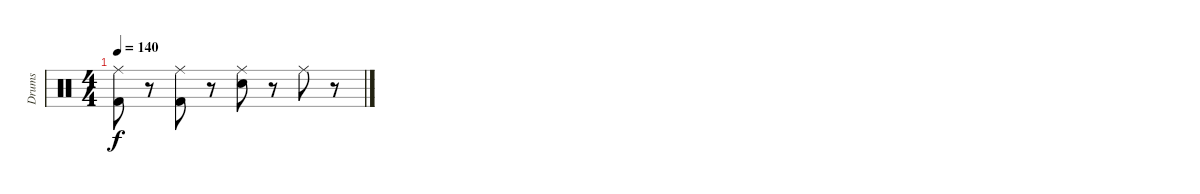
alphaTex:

\track ("Drums" "Drums") {instrument percussion}
\staff {score}
\articulation defaults
\ts (4 4)
\tempo 140
\clef neutral
\ks c
("Ride (middle)" "Kick (hit) 2").8{dy f} r.8 ("Ride (middle)" "Kick (hit) 2").8 r.8 ("Ride (middle)" "Electric Snare (hit)").8 r.8 "Ride (middle)".8 r.8
